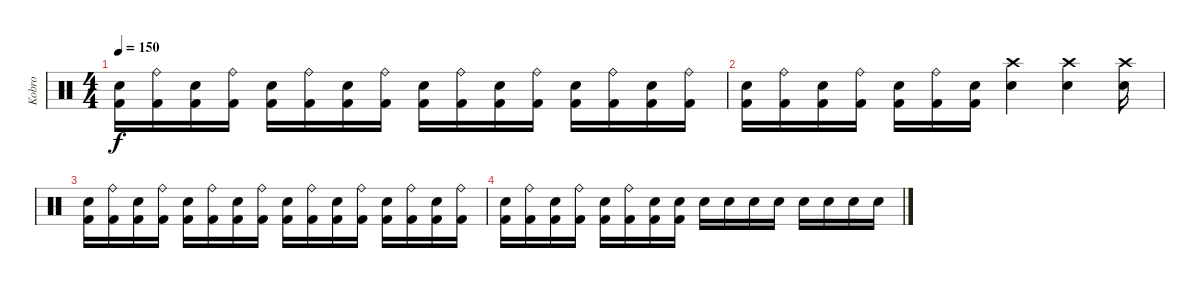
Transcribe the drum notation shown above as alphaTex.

\track ("Kobro" "Kobro") {instrument percussion}
\staff {score}
\articulation defaults
\ts (4 4)
\tempo 150
\clef neutral
\ks c
("Kick (hit) 2" "Electric Snare (hit)").16{dy f} ("Kick (hit) 2" "Ride (bell)").16 ("Kick (hit) 2" "Electric Snare (hit)").16 ("Kick (hit) 2" "Ride (bell)").16 ("Kick (hit) 2" "Electric Snare (hit)").16 ("Kick (hit) 2" "Ride (bell)").16 ("Kick (hit) 2" "Electric Snare (hit)").16 ("Kick (hit) 2" "Ride (bell)").16 ("Kick (hit) 2" "Electric Snare (hit)").16 ("Kick (hit) 2" "Ride (bell)").16 ("Kick (hit) 2" "Electric Snare (hit)").16 ("Kick (hit) 2" "Ride (bell)").16 ("Kick (hit) 2" "Electric Snare (hit)").16 ("Kick (hit) 2" "Ride (bell)").16 ("Kick (hit) 2" "Electric Snare (hit)").16 ("Kick (hit) 2" "Ride (bell)").16 |
("Kick (hit) 2" "Electric Snare (hit)").16 ("Kick (hit) 2" "Ride (bell)").16 ("Kick (hit) 2" "Electric Snare (hit)").16 ("Kick (hit) 2" "Ride (bell)").16 ("Kick (hit) 2" "Electric Snare (hit)").16 ("Kick (hit) 2" "Ride (bell)").16 ("Kick (hit) 2" "Electric Snare (hit)").16 ("Snare (hit) 2" "Crash high (hit)").4 ("Snare (hit) 2" "Crash high (hit)").4 ("Snare (hit) 2" "Crash high (hit)").16 |
("Kick (hit) 2" "Electric Snare (hit)").16 ("Kick (hit) 2" "Ride (bell)").16 ("Kick (hit) 2" "Electric Snare (hit)").16 ("Kick (hit) 2" "Ride (bell)").16 ("Kick (hit) 2" "Electric Snare (hit)").16 ("Kick (hit) 2" "Ride (bell)").16 ("Kick (hit) 2" "Electric Snare (hit)").16 ("Kick (hit) 2" "Ride (bell)").16 ("Kick (hit) 2" "Electric Snare (hit)").16 ("Kick (hit) 2" "Ride (bell)").16 ("Kick (hit) 2" "Electric Snare (hit)").16 ("Kick (hit) 2" "Ride (bell)").16 ("Kick (hit) 2" "Electric Snare (hit)").16 ("Kick (hit) 2" "Ride (bell)").16 ("Kick (hit) 2" "Electric Snare (hit)").16 ("Kick (hit) 2" "Ride (bell)").16 |
("Kick (hit) 2" "Electric Snare (hit)").16 ("Kick (hit) 2" "Ride (bell)").16 ("Kick (hit) 2" "Electric Snare (hit)").16 ("Kick (hit) 2" "Ride (bell)").16 ("Kick (hit) 2" "Electric Snare (hit)").16 ("Kick (hit) 2" "Ride (bell)").16 ("Kick (hit) 2" "Electric Snare (hit)").16 ("Snare (hit) 2" "Kick (hit) 2").16 "Electric Snare (hit)".16 "Electric Snare (hit)".16 "Electric Snare (hit)".16 "Electric Snare (hit)".16 "Snare (hit) 2".16 "Snare (hit) 2".16 "Snare (hit) 2".16 "Snare (hit) 2".16
